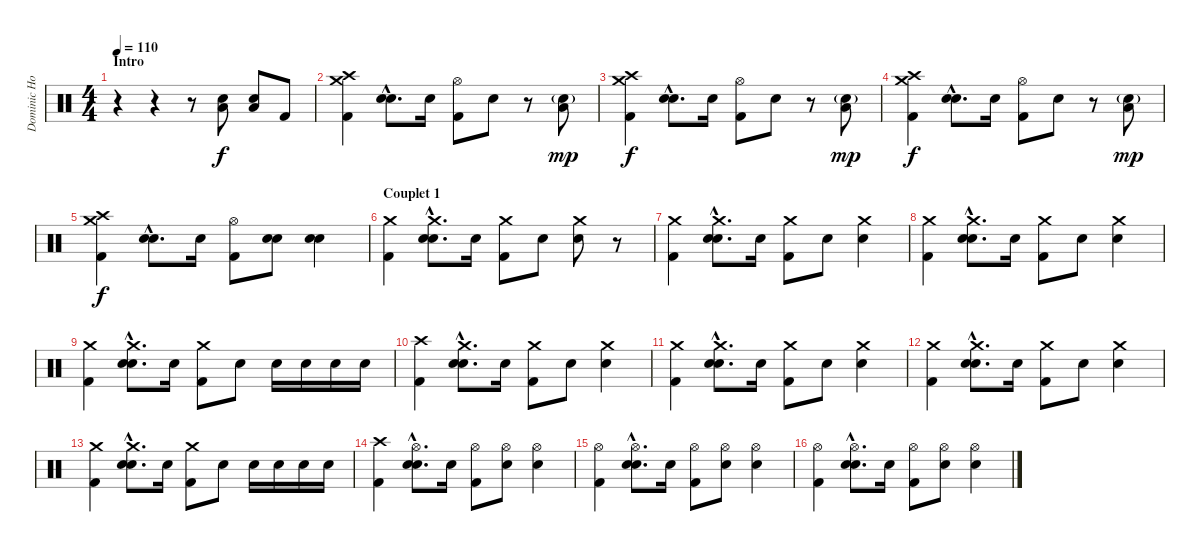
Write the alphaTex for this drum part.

\track ("Dominic Howard - Percussions" "Dominic Ho") {instrument percussion}
\staff {score}
\articulation defaults
\ts (4 4)
\section ("" "Intro")
\tempo 110
\clef neutral
\ks c
r.4{dy f} r.4 r.8 ("Low Tom (hit)" "Snare (hit) 2").8 ("Low Tom (hit)" "Snare (hit) 2").8 "Kick (hit) 2".8 |
("Crash high (hit)" "Crash medium (hit)" "Kick (hit) 2").4 ("Snare (hit) 2"{hac} "Snare (hit) 2"{hac}).8{d} "Snare (hit) 2".16 ("Hi-Hat (open)" "Kick (hit) 2").8 "Snare (hit) 2".8 r.8 ("Snare (hit) 2"{g} "Low Tom (hit)").8{dy mp} |
("Crash high (hit)" "Crash medium (hit)" "Kick (hit) 2").4{dy f} ("Snare (hit) 2"{hac} "Snare (hit) 2"{hac}).8{d} "Snare (hit) 2".16 ("Hi-Hat (open)" "Kick (hit) 2").8 "Snare (hit) 2".8 r.8 ("Snare (hit) 2"{g} "Low Tom (hit)").8{dy mp} |
("Crash high (hit)" "Crash medium (hit)" "Kick (hit) 2").4{dy f} ("Snare (hit) 2"{hac} "Snare (hit) 2"{hac}).8{d} "Snare (hit) 2".16 ("Hi-Hat (open)" "Kick (hit) 2").8 "Snare (hit) 2".8 r.8 ("Snare (hit) 2"{g} "Low Tom (hit)").8{dy mp} |
("Crash high (hit)" "Crash medium (hit)" "Kick (hit) 2").4{dy f} ("Snare (hit) 2"{hac} "Snare (hit) 2"{hac}).8{d} "Snare (hit) 2".16 ("Hi-Hat (open)" "Kick (hit) 2").8 ("Snare (hit) 2" "Snare (hit) 2").8 ("Snare (hit) 2" "Snare (hit) 2").4 |
\section ("" "Couplet 1")
("Crash medium (hit)" "Kick (hit) 2").4 ("Crash medium (hit)"{hac} "Snare (hit) 2"{hac} "Snare (hit) 2"{hac}).8{d} "Snare (hit) 2".16 ("Crash medium (hit)" "Kick (hit) 2").8 "Snare (hit) 2".8 ("Crash medium (hit)" "Snare (hit) 2").8 r.8 |
("Crash medium (hit)" "Kick (hit) 2").4 ("Crash medium (hit)"{hac} "Snare (hit) 2"{hac} "Snare (hit) 2"{hac}).8{d} "Snare (hit) 2".16 ("Crash medium (hit)" "Kick (hit) 2").8 "Snare (hit) 2".8 ("Crash medium (hit)" "Snare (hit) 2").4 |
("Crash medium (hit)" "Kick (hit) 2").4 ("Crash medium (hit)"{hac} "Snare (hit) 2"{hac} "Snare (hit) 2"{hac}).8{d} "Snare (hit) 2".16 ("Crash medium (hit)" "Kick (hit) 2").8 "Snare (hit) 2".8 ("Crash medium (hit)" "Snare (hit) 2").4 |
("Crash medium (hit)" "Kick (hit) 2").4 ("Crash medium (hit)"{hac} "Snare (hit) 2"{hac} "Snare (hit) 2"{hac}).8{d} "Snare (hit) 2".16 ("Crash medium (hit)" "Kick (hit) 2").8 "Snare (hit) 2".8 "Snare (hit) 2".16 "Snare (hit) 2".16 "Snare (hit) 2".16 "Snare (hit) 2".16 |
("Crash high (hit)" "Kick (hit) 2").4 ("Crash medium (hit)"{hac} "Snare (hit) 2"{hac} "Snare (hit) 2"{hac}).8{d} "Snare (hit) 2".16 ("Crash medium (hit)" "Kick (hit) 2").8 "Snare (hit) 2".8 ("Crash medium (hit)" "Snare (hit) 2").4 |
("Crash medium (hit)" "Kick (hit) 2").4 ("Crash medium (hit)"{hac} "Snare (hit) 2"{hac} "Snare (hit) 2"{hac}).8{d} "Snare (hit) 2".16 ("Crash medium (hit)" "Kick (hit) 2").8 "Snare (hit) 2".8 ("Crash medium (hit)" "Snare (hit) 2").4 |
("Crash medium (hit)" "Kick (hit) 2").4 ("Crash medium (hit)"{hac} "Snare (hit) 2"{hac} "Snare (hit) 2"{hac}).8{d} "Snare (hit) 2".16 ("Crash medium (hit)" "Kick (hit) 2").8 "Snare (hit) 2".8 ("Crash medium (hit)" "Snare (hit) 2").4 |
("Crash medium (hit)" "Kick (hit) 2").4 ("Crash medium (hit)"{hac} "Snare (hit) 2"{hac} "Snare (hit) 2"{hac}).8{d} "Snare (hit) 2".16 ("Crash medium (hit)" "Kick (hit) 2").8 "Snare (hit) 2".8 "Snare (hit) 2".16 "Snare (hit) 2".16 "Snare (hit) 2".16 "Snare (hit) 2".16 |
("Crash high (hit)" "Kick (hit) 2").4 ("Hi-Hat (open)"{hac} "Snare (hit) 2"{hac} "Snare (hit) 2"{hac}).8{d} "Snare (hit) 2".16 ("Hi-Hat (open)" "Kick (hit) 2").8 ("Hi-Hat (open)" "Snare (hit) 2").8 ("Hi-Hat (open)" "Snare (hit) 2").4 |
("Hi-Hat (open)" "Kick (hit) 2").4 ("Hi-Hat (open)"{hac} "Snare (hit) 2"{hac} "Snare (hit) 2"{hac}).8{d} "Snare (hit) 2".16 ("Hi-Hat (open)" "Kick (hit) 2").8 ("Hi-Hat (open)" "Snare (hit) 2").8 ("Hi-Hat (open)" "Snare (hit) 2").4 |
("Hi-Hat (open)" "Kick (hit) 2").4 ("Hi-Hat (open)"{hac} "Snare (hit) 2"{hac} "Snare (hit) 2"{hac}).8{d} "Snare (hit) 2".16 ("Hi-Hat (open)" "Kick (hit) 2").8 ("Hi-Hat (open)" "Snare (hit) 2").8 ("Hi-Hat (open)" "Snare (hit) 2").4
